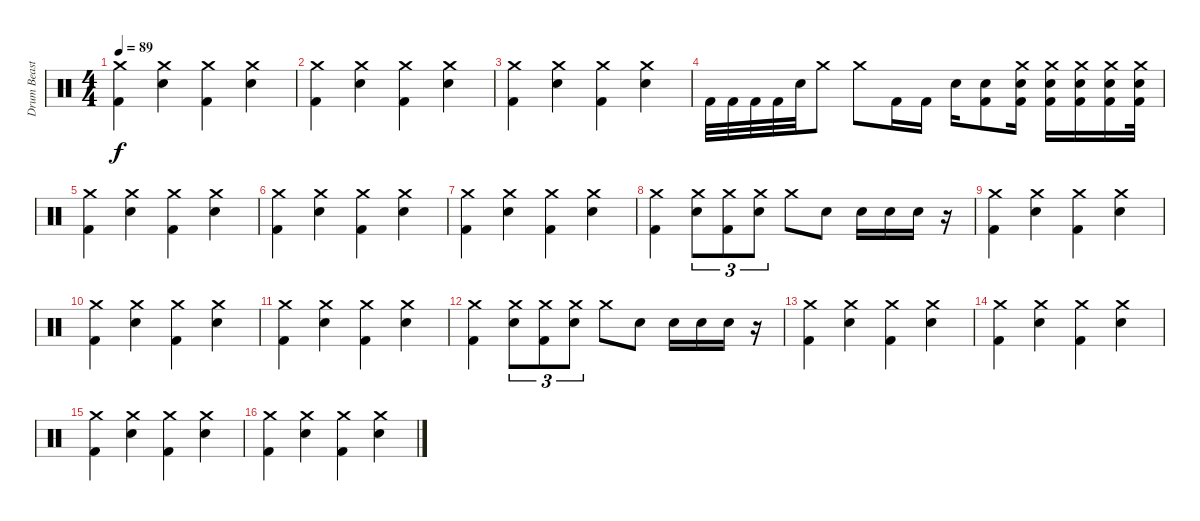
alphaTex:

\track ("Drum Beast Lars" "Drum Beast") {instrument percussion}
\staff {score}
\articulation defaults
\ts (4 4)
\tempo 89
\clef neutral
\ks c
("Crash medium (hit)" "Kick (hit) 2").4{dy f} ("Crash medium (hit)" "Electric Snare (hit)").4 ("Crash medium (hit)" "Kick (hit) 2").4 ("Crash medium (hit)" "Electric Snare (hit)").4 |
("Crash medium (hit)" "Kick (hit) 2").4 ("Crash medium (hit)" "Electric Snare (hit)").4 ("Crash medium (hit)" "Kick (hit) 2").4 ("Crash medium (hit)" "Electric Snare (hit)").4 |
("Crash medium (hit)" "Kick (hit) 2").4 ("Crash medium (hit)" "Electric Snare (hit)").4 ("Crash medium (hit)" "Kick (hit) 2").4 ("Crash medium (hit)" "Electric Snare (hit)").4 |
"Kick (hit) 2".32 "Kick (hit) 2".32 "Kick (hit) 2".32 "Kick (hit) 2".32 "Electric Snare (hit)".32 "Crash medium (hit)".8 "Crash medium (hit)".8 "Kick (hit) 2".16 "Kick (hit) 2".16 "Electric Snare (hit)".16 ("Electric Snare (hit)" "Kick (hit) 2").8 ("Crash medium (hit)" "Electric Snare (hit)" "Kick (hit) 2").16 ("Crash medium (hit)" "Electric Snare (hit)" "Kick (hit) 2").16 ("Crash medium (hit)" "Electric Snare (hit)" "Kick (hit) 2").16 ("Crash medium (hit)" "Electric Snare (hit)" "Kick (hit) 2").16 ("Crash medium (hit)" "Electric Snare (hit)" "Kick (hit) 2").32 |
("Crash medium (hit)" "Kick (hit) 2").4 ("Crash medium (hit)" "Electric Snare (hit)").4 ("Crash medium (hit)" "Kick (hit) 2").4 ("Crash medium (hit)" "Electric Snare (hit)").4 |
("Crash medium (hit)" "Kick (hit) 2").4 ("Crash medium (hit)" "Electric Snare (hit)").4 ("Crash medium (hit)" "Kick (hit) 2").4 ("Crash medium (hit)" "Electric Snare (hit)").4 |
("Crash medium (hit)" "Kick (hit) 2").4 ("Crash medium (hit)" "Electric Snare (hit)").4 ("Crash medium (hit)" "Kick (hit) 2").4 ("Crash medium (hit)" "Electric Snare (hit)").4 |
("Crash medium (hit)" "Kick (hit) 2").4 ("Crash medium (hit)" "Electric Snare (hit)").8{tu (3 2)} ("Crash medium (hit)" "Kick (hit) 2").8{tu (3 2)} ("Crash medium (hit)" "Electric Snare (hit)").8{tu (3 2)} "Crash medium (hit)".8 "Electric Snare (hit)".8 "Electric Snare (hit)".16 "Electric Snare (hit)".16 "Electric Snare (hit)".16 r.16 |
("Crash medium (hit)" "Kick (hit) 2").4 ("Crash medium (hit)" "Electric Snare (hit)").4 ("Crash medium (hit)" "Kick (hit) 2").4 ("Crash medium (hit)" "Electric Snare (hit)").4 |
("Crash medium (hit)" "Kick (hit) 2").4 ("Crash medium (hit)" "Electric Snare (hit)").4 ("Crash medium (hit)" "Kick (hit) 2").4 ("Crash medium (hit)" "Electric Snare (hit)").4 |
("Crash medium (hit)" "Kick (hit) 2").4 ("Crash medium (hit)" "Electric Snare (hit)").4 ("Crash medium (hit)" "Kick (hit) 2").4 ("Crash medium (hit)" "Electric Snare (hit)").4 |
("Crash medium (hit)" "Kick (hit) 2").4 ("Crash medium (hit)" "Electric Snare (hit)").8{tu (3 2)} ("Crash medium (hit)" "Kick (hit) 2").8{tu (3 2)} ("Crash medium (hit)" "Electric Snare (hit)").8{tu (3 2)} "Crash medium (hit)".8 "Electric Snare (hit)".8 "Electric Snare (hit)".16 "Electric Snare (hit)".16 "Electric Snare (hit)".16 r.16 |
("Crash medium (hit)" "Kick (hit) 2").4 ("Crash medium (hit)" "Electric Snare (hit)").4 ("Crash medium (hit)" "Kick (hit) 2").4 ("Crash medium (hit)" "Electric Snare (hit)").4 |
("Crash medium (hit)" "Kick (hit) 2").4 ("Crash medium (hit)" "Electric Snare (hit)").4 ("Crash medium (hit)" "Kick (hit) 2").4 ("Crash medium (hit)" "Electric Snare (hit)").4 |
("Crash medium (hit)" "Kick (hit) 2").4 ("Crash medium (hit)" "Electric Snare (hit)").4 ("Crash medium (hit)" "Kick (hit) 2").4 ("Crash medium (hit)" "Electric Snare (hit)").4 |
("Crash medium (hit)" "Kick (hit) 2").4 ("Crash medium (hit)" "Electric Snare (hit)").4 ("Crash medium (hit)" "Kick (hit) 2").4 ("Crash medium (hit)" "Electric Snare (hit)").4
